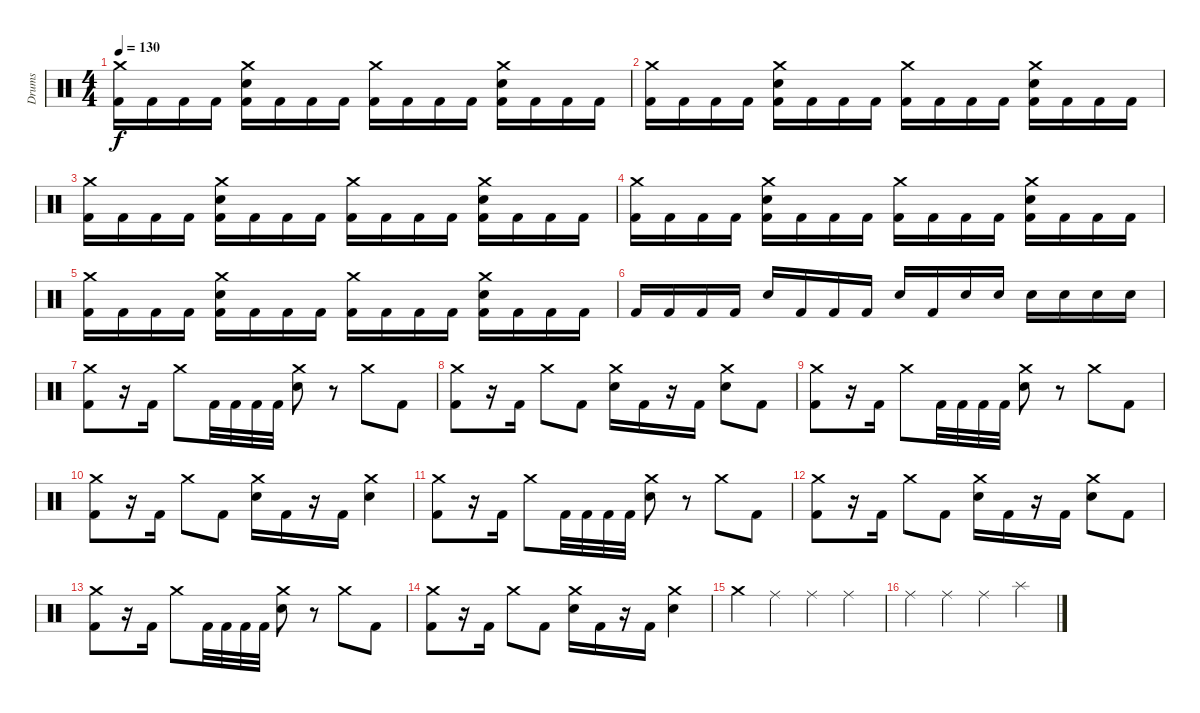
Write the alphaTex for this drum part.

\track ("Drums" "Drums") {instrument percussion}
\staff {score}
\articulation defaults
\ts (4 4)
\tempo 130
\clef neutral
\ks c
("Crash medium (hit)" "Kick (hit) 2").16{dy f} "Kick (hit) 2".16 "Kick (hit) 2".16 "Kick (hit) 2".16 ("Crash medium (hit)" "Snare (hit) 2" "Kick (hit) 2").16 "Kick (hit) 2".16 "Kick (hit) 2".16 "Kick (hit) 2".16 ("Crash medium (hit)" "Kick (hit) 2").16 "Kick (hit) 2".16 "Kick (hit) 2".16 "Kick (hit) 2".16 ("Crash medium (hit)" "Snare (hit) 2" "Kick (hit) 2").16 "Kick (hit) 2".16 "Kick (hit) 2".16 "Kick (hit) 2".16 |
("Crash medium (hit)" "Kick (hit) 2").16 "Kick (hit) 2".16 "Kick (hit) 2".16 "Kick (hit) 2".16 ("Crash medium (hit)" "Snare (hit) 2" "Kick (hit) 2").16 "Kick (hit) 2".16 "Kick (hit) 2".16 "Kick (hit) 2".16 ("Crash medium (hit)" "Kick (hit) 2").16 "Kick (hit) 2".16 "Kick (hit) 2".16 "Kick (hit) 2".16 ("Crash medium (hit)" "Snare (hit) 2" "Kick (hit) 2").16 "Kick (hit) 2".16 "Kick (hit) 2".16 "Kick (hit) 2".16 |
("Crash medium (hit)" "Kick (hit) 2").16 "Kick (hit) 2".16 "Kick (hit) 2".16 "Kick (hit) 2".16 ("Crash medium (hit)" "Snare (hit) 2" "Kick (hit) 2").16 "Kick (hit) 2".16 "Kick (hit) 2".16 "Kick (hit) 2".16 ("Crash medium (hit)" "Kick (hit) 2").16 "Kick (hit) 2".16 "Kick (hit) 2".16 "Kick (hit) 2".16 ("Crash medium (hit)" "Snare (hit) 2" "Kick (hit) 2").16 "Kick (hit) 2".16 "Kick (hit) 2".16 "Kick (hit) 2".16 |
("Crash medium (hit)" "Kick (hit) 2").16 "Kick (hit) 2".16 "Kick (hit) 2".16 "Kick (hit) 2".16 ("Crash medium (hit)" "Snare (hit) 2" "Kick (hit) 2").16 "Kick (hit) 2".16 "Kick (hit) 2".16 "Kick (hit) 2".16 ("Crash medium (hit)" "Kick (hit) 2").16 "Kick (hit) 2".16 "Kick (hit) 2".16 "Kick (hit) 2".16 ("Crash medium (hit)" "Snare (hit) 2" "Kick (hit) 2").16 "Kick (hit) 2".16 "Kick (hit) 2".16 "Kick (hit) 2".16 |
("Crash medium (hit)" "Kick (hit) 2").16 "Kick (hit) 2".16 "Kick (hit) 2".16 "Kick (hit) 2".16 ("Crash medium (hit)" "Snare (hit) 2" "Kick (hit) 2").16 "Kick (hit) 2".16 "Kick (hit) 2".16 "Kick (hit) 2".16 ("Crash medium (hit)" "Kick (hit) 2").16 "Kick (hit) 2".16 "Kick (hit) 2".16 "Kick (hit) 2".16 ("Crash medium (hit)" "Snare (hit) 2" "Kick (hit) 2").16 "Kick (hit) 2".16 "Kick (hit) 2".16 "Kick (hit) 2".16 |
"Kick (hit) 2".16 "Kick (hit) 2".16 "Kick (hit) 2".16 "Kick (hit) 2".16 "Snare (hit) 2".16 "Kick (hit) 2".16 "Kick (hit) 2".16 "Kick (hit) 2".16 "Snare (hit) 2".16 "Kick (hit) 2".16 "Snare (hit) 2".16 "Snare (hit) 2".16 "Snare (hit) 2".16 "Snare (hit) 2".16 "Snare (hit) 2".16 "Snare (hit) 2".16 |
("Crash medium (hit)" "Kick (hit) 2").8 r.16 "Kick (hit) 2".16 "Crash medium (hit)".8 "Kick (hit) 2".32 "Kick (hit) 2".32 "Kick (hit) 2".32 "Kick (hit) 2".32 ("Crash medium (hit)" "Snare (hit) 2").8 r.8 "Crash medium (hit)".8 "Kick (hit) 2".8 |
("Crash medium (hit)" "Kick (hit) 2").8 r.16 "Kick (hit) 2".16 "Crash medium (hit)".8 "Kick (hit) 2".8 ("Crash medium (hit)" "Snare (hit) 2").16 "Kick (hit) 2".16 r.16 "Kick (hit) 2".16 ("Crash medium (hit)" "Snare (hit) 2").8 "Kick (hit) 2".8 |
("Crash medium (hit)" "Kick (hit) 2").8 r.16 "Kick (hit) 2".16 "Crash medium (hit)".8 "Kick (hit) 2".32 "Kick (hit) 2".32 "Kick (hit) 2".32 "Kick (hit) 2".32 ("Crash medium (hit)" "Snare (hit) 2").8 r.8 "Crash medium (hit)".8 "Kick (hit) 2".8 |
("Crash medium (hit)" "Kick (hit) 2").8 r.16 "Kick (hit) 2".16 "Crash medium (hit)".8 "Kick (hit) 2".8 ("Crash medium (hit)" "Snare (hit) 2").16 "Kick (hit) 2".16 r.16 "Kick (hit) 2".16 ("Crash medium (hit)" "Snare (hit) 2").4 |
("Crash medium (hit)" "Kick (hit) 2").8 r.16 "Kick (hit) 2".16 "Crash medium (hit)".8 "Kick (hit) 2".32 "Kick (hit) 2".32 "Kick (hit) 2".32 "Kick (hit) 2".32 ("Crash medium (hit)" "Snare (hit) 2").8 r.8 "Crash medium (hit)".8 "Kick (hit) 2".8 |
("Crash medium (hit)" "Kick (hit) 2").8 r.16 "Kick (hit) 2".16 "Crash medium (hit)".8 "Kick (hit) 2".8 ("Crash medium (hit)" "Snare (hit) 2").16 "Kick (hit) 2".16 r.16 "Kick (hit) 2".16 ("Crash medium (hit)" "Snare (hit) 2").8 "Kick (hit) 2".8 |
("Crash medium (hit)" "Kick (hit) 2").8 r.16 "Kick (hit) 2".16 "Crash medium (hit)".8 "Kick (hit) 2".32 "Kick (hit) 2".32 "Kick (hit) 2".32 "Kick (hit) 2".32 ("Crash medium (hit)" "Snare (hit) 2").8 r.8 "Crash medium (hit)".8 "Kick (hit) 2".8 |
("Crash medium (hit)" "Kick (hit) 2").8 r.16 "Kick (hit) 2".16 "Crash medium (hit)".8 "Kick (hit) 2".8 ("Crash medium (hit)" "Snare (hit) 2").16 "Kick (hit) 2".16 r.16 "Kick (hit) 2".16 ("Crash medium (hit)" "Snare (hit) 2").4 |
"Crash medium (hit)".4 "Ride (middle)".4 "Ride (middle)".4 "Ride (middle)".4 |
"Ride (middle)".4 "Ride (middle)".4 "Ride (middle)".4 "Splash (hit)".4
